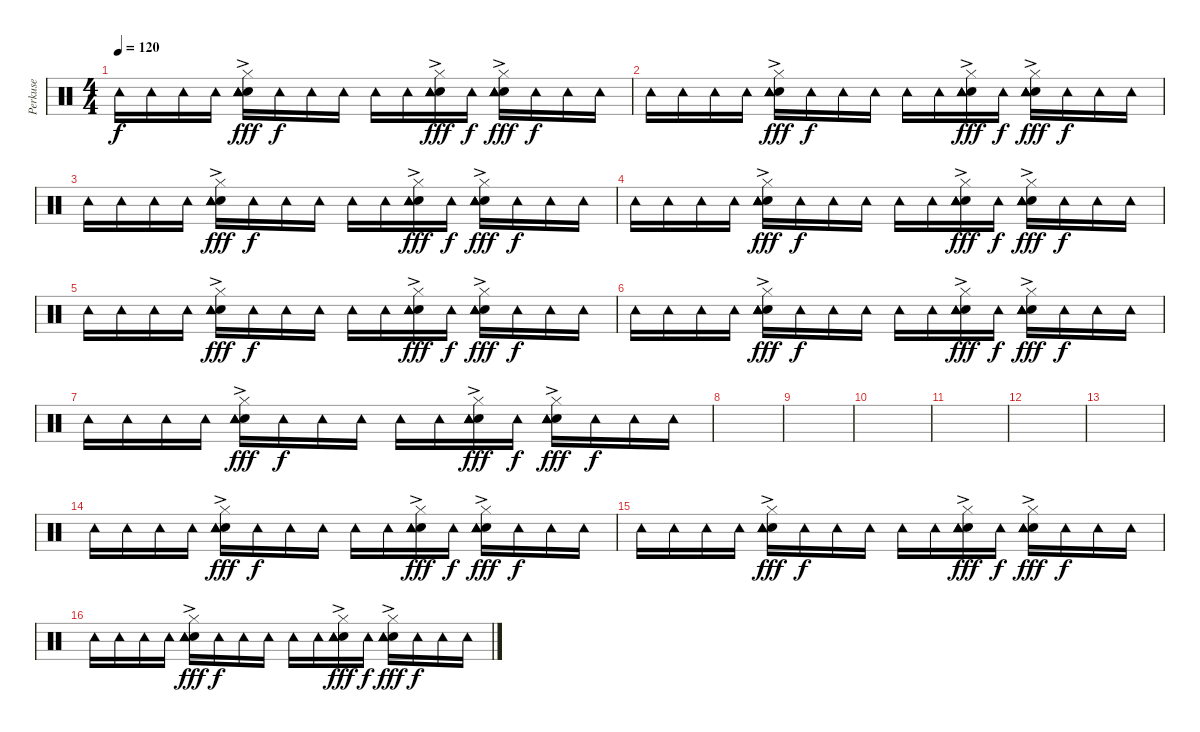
\track ("Perkuse" "Perkuse") {instrument percussion}
\staff {score}
\articulation defaults
\ts (4 4)
\tempo 120
\clef neutral
\ks c "Tambourine (hit)".16{dy f} "Tambourine (hit)".16 "Tambourine (hit)".16 "Tambourine (hit)".16
("Hi-Hat (closed)" "Hand Clap (hit)" "Tambourine (hit)"{ac} "Tambourine (hit)"{ac} "Tambourine (hit)"{ac}).16{dy fff} "Tambourine (hit)".16{dy f} "Tambourine (hit)".16 "Tambourine (hit)".16 "Tambourine (hit)".16 "Tambourine (hit)".16 ("Hi-Hat (closed)" "Hand Clap (hit)" "Tambourine (hit)"{ac} "Tambourine (hit)"{ac} "Tambourine (hit)"{ac}).16{dy fff} "Tambourine (hit)".16{dy f} ("Hi-Hat (closed)" "Hand Clap (hit)" "Tambourine (hit)"{ac} "Tambourine (hit)"{ac} "Tambourine (hit)"{ac}).16{dy fff} "Tambourine (hit)".16{dy f} "Tambourine (hit)".16 "Tambourine (hit)".16 |
"Tambourine (hit)".16 "Tambourine (hit)".16 "Tambourine (hit)".16 "Tambourine (hit)".16 ("Hi-Hat (closed)" "Hand Clap (hit)" "Tambourine (hit)"{ac} "Tambourine (hit)"{ac} "Tambourine (hit)"{ac}).16{dy fff} "Tambourine (hit)".16{dy f} "Tambourine (hit)".16 "Tambourine (hit)".16 "Tambourine (hit)".16 "Tambourine (hit)".16 ("Hi-Hat (closed)" "Hand Clap (hit)" "Tambourine (hit)"{ac} "Tambourine (hit)"{ac} "Tambourine (hit)"{ac}).16{dy fff} "Tambourine (hit)".16{dy f} ("Hi-Hat (closed)" "Hand Clap (hit)" "Tambourine (hit)"{ac} "Tambourine (hit)"{ac} "Tambourine (hit)"{ac}).16{dy fff} "Tambourine (hit)".16{dy f} "Tambourine (hit)".16 "Tambourine (hit)".16 |
"Tambourine (hit)".16 "Tambourine (hit)".16 "Tambourine (hit)".16 "Tambourine (hit)".16 ("Hi-Hat (closed)" "Hand Clap (hit)" "Tambourine (hit)"{ac} "Tambourine (hit)"{ac} "Tambourine (hit)"{ac}).16{dy fff} "Tambourine (hit)".16{dy f} "Tambourine (hit)".16 "Tambourine (hit)".16 "Tambourine (hit)".16 "Tambourine (hit)".16 ("Hi-Hat (closed)" "Hand Clap (hit)" "Tambourine (hit)"{ac} "Tambourine (hit)"{ac} "Tambourine (hit)"{ac}).16{dy fff} "Tambourine (hit)".16{dy f} ("Hi-Hat (closed)" "Hand Clap (hit)" "Tambourine (hit)"{ac} "Tambourine (hit)"{ac} "Tambourine (hit)"{ac}).16{dy fff} "Tambourine (hit)".16{dy f} "Tambourine (hit)".16 "Tambourine (hit)".16 |
"Tambourine (hit)".16 "Tambourine (hit)".16 "Tambourine (hit)".16 "Tambourine (hit)".16 ("Hi-Hat (closed)" "Hand Clap (hit)" "Tambourine (hit)"{ac} "Tambourine (hit)"{ac} "Tambourine (hit)"{ac}).16{dy fff} "Tambourine (hit)".16{dy f} "Tambourine (hit)".16 "Tambourine (hit)".16 "Tambourine (hit)".16 "Tambourine (hit)".16 ("Hi-Hat (closed)" "Hand Clap (hit)" "Tambourine (hit)"{ac} "Tambourine (hit)"{ac} "Tambourine (hit)"{ac}).16{dy fff} "Tambourine (hit)".16{dy f} ("Hi-Hat (closed)" "Hand Clap (hit)" "Tambourine (hit)"{ac} "Tambourine (hit)"{ac} "Tambourine (hit)"{ac}).16{dy fff} "Tambourine (hit)".16{dy f} "Tambourine (hit)".16 "Tambourine (hit)".16 |
"Tambourine (hit)".16 "Tambourine (hit)".16 "Tambourine (hit)".16 "Tambourine (hit)".16 ("Hi-Hat (closed)" "Hand Clap (hit)" "Tambourine (hit)"{ac} "Tambourine (hit)"{ac} "Tambourine (hit)"{ac}).16{dy fff} "Tambourine (hit)".16{dy f} "Tambourine (hit)".16 "Tambourine (hit)".16 "Tambourine (hit)".16 "Tambourine (hit)".16 ("Hi-Hat (closed)" "Hand Clap (hit)" "Tambourine (hit)"{ac} "Tambourine (hit)"{ac} "Tambourine (hit)"{ac}).16{dy fff} "Tambourine (hit)".16{dy f} ("Hi-Hat (closed)" "Hand Clap (hit)" "Tambourine (hit)"{ac} "Tambourine (hit)"{ac} "Tambourine (hit)"{ac}).16{dy fff} "Tambourine (hit)".16{dy f} "Tambourine (hit)".16 "Tambourine (hit)".16 |
"Tambourine (hit)".16 "Tambourine (hit)".16 "Tambourine (hit)".16 "Tambourine (hit)".16 ("Hi-Hat (closed)" "Hand Clap (hit)" "Tambourine (hit)"{ac} "Tambourine (hit)"{ac} "Tambourine (hit)"{ac}).16{dy fff} "Tambourine (hit)".16{dy f} "Tambourine (hit)".16 "Tambourine (hit)".16 "Tambourine (hit)".16 "Tambourine (hit)".16 ("Hi-Hat (closed)" "Hand Clap (hit)" "Tambourine (hit)"{ac} "Tambourine (hit)"{ac} "Tambourine (hit)"{ac}).16{dy fff} "Tambourine (hit)".16{dy f} ("Hi-Hat (closed)" "Hand Clap (hit)" "Tambourine (hit)"{ac} "Tambourine (hit)"{ac} "Tambourine (hit)"{ac}).16{dy fff} "Tambourine (hit)".16{dy f} "Tambourine (hit)".16 "Tambourine (hit)".16 |
"Tambourine (hit)".16 "Tambourine (hit)".16 "Tambourine (hit)".16 "Tambourine (hit)".16 ("Hi-Hat (closed)" "Hand Clap (hit)" "Tambourine (hit)"{ac} "Tambourine (hit)"{ac} "Tambourine (hit)"{ac}).16{dy fff} "Tambourine (hit)".16{dy f} "Tambourine (hit)".16 "Tambourine (hit)".16 "Tambourine (hit)".16 "Tambourine (hit)".16 ("Hi-Hat (closed)" "Hand Clap (hit)" "Tambourine (hit)"{ac} "Tambourine (hit)"{ac} "Tambourine (hit)"{ac}).16{dy fff} "Tambourine (hit)".16{dy f} ("Hi-Hat (closed)" "Hand Clap (hit)" "Tambourine (hit)"{ac} "Tambourine (hit)"{ac} "Tambourine (hit)"{ac}).16{dy fff} "Tambourine (hit)".16{dy f} "Tambourine (hit)".16 "Tambourine (hit)".16 |
|
|
|
|
|
|
"Tambourine (hit)".16 "Tambourine (hit)".16 "Tambourine (hit)".16 "Tambourine (hit)".16 ("Hi-Hat (closed)" "Hand Clap (hit)" "Tambourine (hit)"{ac} "Tambourine (hit)"{ac} "Tambourine (hit)"{ac}).16{dy fff} "Tambourine (hit)".16{dy f} "Tambourine (hit)".16 "Tambourine (hit)".16 "Tambourine (hit)".16 "Tambourine (hit)".16 ("Hi-Hat (closed)" "Hand Clap (hit)" "Tambourine (hit)"{ac} "Tambourine (hit)"{ac} "Tambourine (hit)"{ac}).16{dy fff} "Tambourine (hit)".16{dy f} ("Hi-Hat (closed)" "Hand Clap (hit)" "Tambourine (hit)"{ac} "Tambourine (hit)"{ac} "Tambourine (hit)"{ac}).16{dy fff} "Tambourine (hit)".16{dy f} "Tambourine (hit)".16 "Tambourine (hit)".16 |
"Tambourine (hit)".16 "Tambourine (hit)".16 "Tambourine (hit)".16 "Tambourine (hit)".16 ("Hi-Hat (closed)" "Hand Clap (hit)" "Tambourine (hit)"{ac} "Tambourine (hit)"{ac} "Tambourine (hit)"{ac}).16{dy fff} "Tambourine (hit)".16{dy f} "Tambourine (hit)".16 "Tambourine (hit)".16 "Tambourine (hit)".16 "Tambourine (hit)".16 ("Hi-Hat (closed)" "Hand Clap (hit)" "Tambourine (hit)"{ac} "Tambourine (hit)"{ac} "Tambourine (hit)"{ac}).16{dy fff} "Tambourine (hit)".16{dy f} ("Hi-Hat (closed)" "Hand Clap (hit)" "Tambourine (hit)"{ac} "Tambourine (hit)"{ac} "Tambourine (hit)"{ac}).16{dy fff} "Tambourine (hit)".16{dy f} "Tambourine (hit)".16 "Tambourine (hit)".16 |
"Tambourine (hit)".16 "Tambourine (hit)".16 "Tambourine (hit)".16 "Tambourine (hit)".16 ("Hi-Hat (closed)" "Hand Clap (hit)" "Tambourine (hit)"{ac} "Tambourine (hit)"{ac} "Tambourine (hit)"{ac}).16{dy fff} "Tambourine (hit)".16{dy f} "Tambourine (hit)".16 "Tambourine (hit)".16 "Tambourine (hit)".16 "Tambourine (hit)".16 ("Hi-Hat (closed)" "Hand Clap (hit)" "Tambourine (hit)"{ac} "Tambourine (hit)"{ac} "Tambourine (hit)"{ac}).16{dy fff} "Tambourine (hit)".16{dy f} ("Hi-Hat (closed)" "Hand Clap (hit)" "Tambourine (hit)"{ac} "Tambourine (hit)"{ac} "Tambourine (hit)"{ac}).16{dy fff} "Tambourine (hit)".16{dy f} "Tambourine (hit)".16 "Tambourine (hit)".16
